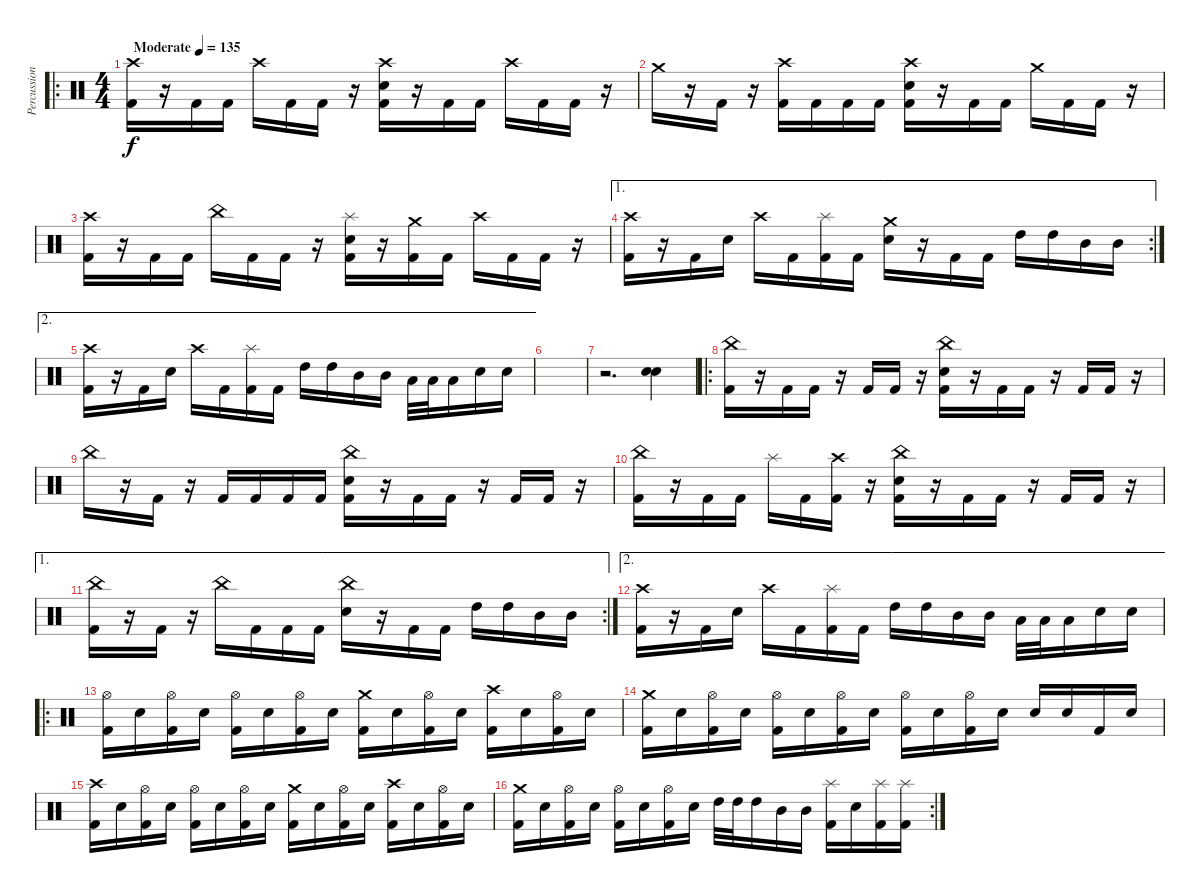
\track ("Percussion" "Percussion") {instrument percussion}
\staff {score}
\articulation defaults
\ro
\ts (4 4)
\tempo (135 "Moderate")
\clef neutral
\ks c
("Crash high (hit)" "Kick (hit) 2").16{dy f} r.16 "Kick (hit) 2".16 "Kick (hit) 2".16 "Crash high (hit)".16 "Kick (hit) 2".16 "Kick (hit) 2".16 r.16 ("Crash high (hit)" "Electric Snare (hit)" "Kick (hit) 2").16 r.16 "Kick (hit) 2".16 "Kick (hit) 2".16 "Crash high (hit)".16 "Kick (hit) 2".16 "Kick (hit) 2".16 r.16 |
"Crash medium (hit)".16 r.16 "Kick (hit) 2".16 r.16 ("Crash high (hit)" "Kick (hit) 2").16 "Kick (hit) 2".16 "Kick (hit) 2".16 "Kick (hit) 2".16 ("Crash high (hit)" "Electric Snare (hit)" "Kick (hit) 2").16 r.16 "Kick (hit) 2".16 "Kick (hit) 2".16 "Crash medium (hit)".16 "Kick (hit) 2".16 "Kick (hit) 2".16 r.16 |
("Crash high (hit)" "Kick (hit) 2").16 r.16 "Kick (hit) 2".16 "Kick (hit) 2".16 "China (hit)".16 "Kick (hit) 2".16 "Kick (hit) 2".16 r.16 ("Splash (hit)" "Electric Snare (hit)" "Kick (hit) 2").16 r.16 ("Crash medium (hit)" "Kick (hit) 2").16 "Kick (hit) 2".16 "Crash high (hit)".16 "Kick (hit) 2".16 "Kick (hit) 2".16 r.16 |
\ae 1
\rc 2
("Crash high (hit)" "Kick (hit) 2").16 r.16 "Kick (hit) 2".16 "Electric Snare (hit)".16 "Crash high (hit)".16 "Kick (hit) 2".16 ("Splash (hit)" "Kick (hit) 2").16 "Kick (hit) 2".16 ("Crash medium (hit)" "Electric Snare (hit)").16 r.16 "Kick (hit) 2".16 "Kick (hit) 2".16 "High Tom (hit)".16 "High Tom (hit)".16 "Mid Tom (hit)".16 "Mid Tom (hit)".16 |
\ae 2
("Crash high (hit)" "Kick (hit) 2").16 r.16 "Kick (hit) 2".16 "Electric Snare (hit)".16 "Crash high (hit)".16 "Kick (hit) 2".16 ("Splash (hit)" "Kick (hit) 2").16 "Kick (hit) 2".16 "High Tom (hit)".16 "High Tom (hit)".16 "Mid Tom (hit)".16 "Mid Tom (hit)".16 "Low Tom (hit)".32 "Low Tom (hit)".32 "Low Tom (hit)".16 "Electric Snare (hit)".16 "Electric Snare (hit)".16 |
|
r.2{d} ("Electric Snare (hit)" "Electric Snare (hit)").4 |
\ro
("China (hit)" "Kick (hit) 2").16 r.16 "Kick (hit) 2".16 "Kick (hit) 2".16 r.16 "Kick (hit) 2".16 "Kick (hit) 2".16 r.16 ("China (hit)" "Electric Snare (hit)" "Kick (hit) 2").16 r.16 "Kick (hit) 2".16 "Kick (hit) 2".16 r.16 "Kick (hit) 2".16 "Kick (hit) 2".16 r.16 |
"China (hit)".16 r.16 "Kick (hit) 2".16 r.16 "Kick (hit) 2".16 "Kick (hit) 2".16 "Kick (hit) 2".16 "Kick (hit) 2".16 ("China (hit)" "Electric Snare (hit)" "Kick (hit) 2").16 r.16 "Kick (hit) 2".16 "Kick (hit) 2".16 r.16 "Kick (hit) 2".16 "Kick (hit) 2".16 r.16 |
("China (hit)" "Kick (hit) 2").16 r.16 "Kick (hit) 2".16 "Kick (hit) 2".16 "Splash (hit)".16 "Kick (hit) 2".16 ("Crash high (hit)" "Kick (hit) 2").16 r.16 ("China (hit)" "Electric Snare (hit)" "Kick (hit) 2").16 r.16 "Kick (hit) 2".16 "Kick (hit) 2".16 r.16 "Kick (hit) 2".16 "Kick (hit) 2".16 r.16 |
\ae 1
\rc 2
("China (hit)" "Kick (hit) 2").16 r.16 "Kick (hit) 2".16 r.16 "China (hit)".16 "Kick (hit) 2".16 "Kick (hit) 2".16 "Kick (hit) 2".16 ("China (hit)" "Electric Snare (hit)").16 r.16 "Kick (hit) 2".16 "Kick (hit) 2".16 "High Tom (hit)".16 "High Tom (hit)".16 "Mid Tom (hit)".16 "Mid Tom (hit)".16 |
\ae 2
("Crash high (hit)" "Kick (hit) 2").16 r.16 "Kick (hit) 2".16 "Electric Snare (hit)".16 "Crash high (hit)".16 "Kick (hit) 2".16 ("Splash (hit)" "Kick (hit) 2").16 "Kick (hit) 2".16 "High Tom (hit)".16 "High Tom (hit)".16 "Mid Tom (hit)".16 "Mid Tom (hit)".16 "Low Tom (hit)".32 "Low Tom (hit)".32 "Low Tom (hit)".16 "Electric Snare (hit)".16 "Electric Snare (hit)".16 |
\ro
("Hi-Hat (open)" "Kick (hit) 2").16 "Electric Snare (hit)".16 ("Hi-Hat (open)" "Kick (hit) 2").16 "Electric Snare (hit)".16 ("Hi-Hat (open)" "Kick (hit) 2").16 "Electric Snare (hit)".16 ("Hi-Hat (open)" "Kick (hit) 2").16 "Electric Snare (hit)".16 ("Crash medium (hit)" "Kick (hit) 2").16 "Electric Snare (hit)".16 ("Hi-Hat (open)" "Kick (hit) 2").16 "Electric Snare (hit)".16 ("Crash high (hit)" "Kick (hit) 2").16 "Electric Snare (hit)".16 ("Hi-Hat (open)" "Kick (hit) 2").16 "Electric Snare (hit)".16 |
("Crash medium (hit)" "Kick (hit) 2").16 "Electric Snare (hit)".16 ("Hi-Hat (open)" "Kick (hit) 2").16 "Electric Snare (hit)".16 ("Hi-Hat (open)" "Kick (hit) 2").16 "Electric Snare (hit)".16 ("Hi-Hat (open)" "Kick (hit) 2").16 "Electric Snare (hit)".16 ("Hi-Hat (open)" "Kick (hit) 2").16 "Electric Snare (hit)".16 ("Hi-Hat (open)" "Kick (hit) 2").16 "Electric Snare (hit)".16 "Electric Snare (hit)".16 "Electric Snare (hit)".16 "Kick (hit) 2".16 "Electric Snare (hit)".16 |
("Crash high (hit)" "Kick (hit) 2").16 "Electric Snare (hit)".16 ("Hi-Hat (open)" "Kick (hit) 2").16 "Electric Snare (hit)".16 ("Hi-Hat (open)" "Kick (hit) 2").16 "Electric Snare (hit)".16 ("Hi-Hat (open)" "Kick (hit) 2").16 "Electric Snare (hit)".16 ("Crash medium (hit)" "Kick (hit) 2").16 "Electric Snare (hit)".16 ("Hi-Hat (open)" "Kick (hit) 2").16 "Electric Snare (hit)".16 ("Crash high (hit)" "Kick (hit) 2").16 "Electric Snare (hit)".16 ("Hi-Hat (open)" "Kick (hit) 2").16 "Electric Snare (hit)".16 |
\rc 2
("Crash medium (hit)" "Kick (hit) 2").16 "Electric Snare (hit)".16 ("Hi-Hat (open)" "Kick (hit) 2").16 "Electric Snare (hit)".16 ("Hi-Hat (open)" "Kick (hit) 2").16 "Electric Snare (hit)".16 ("Hi-Hat (open)" "Kick (hit) 2").16 "Electric Snare (hit)".16 "High Tom (hit)".32 "High Tom (hit)".32 "High Tom (hit)".16 "Mid Tom (hit)".16 "Mid Tom (hit)".16 ("Splash (hit)" "Kick (hit) 2").16 "Electric Snare (hit)".16 ("Splash (hit)" "Kick (hit) 2").16 ("Splash (hit)" "Kick (hit) 2").16
